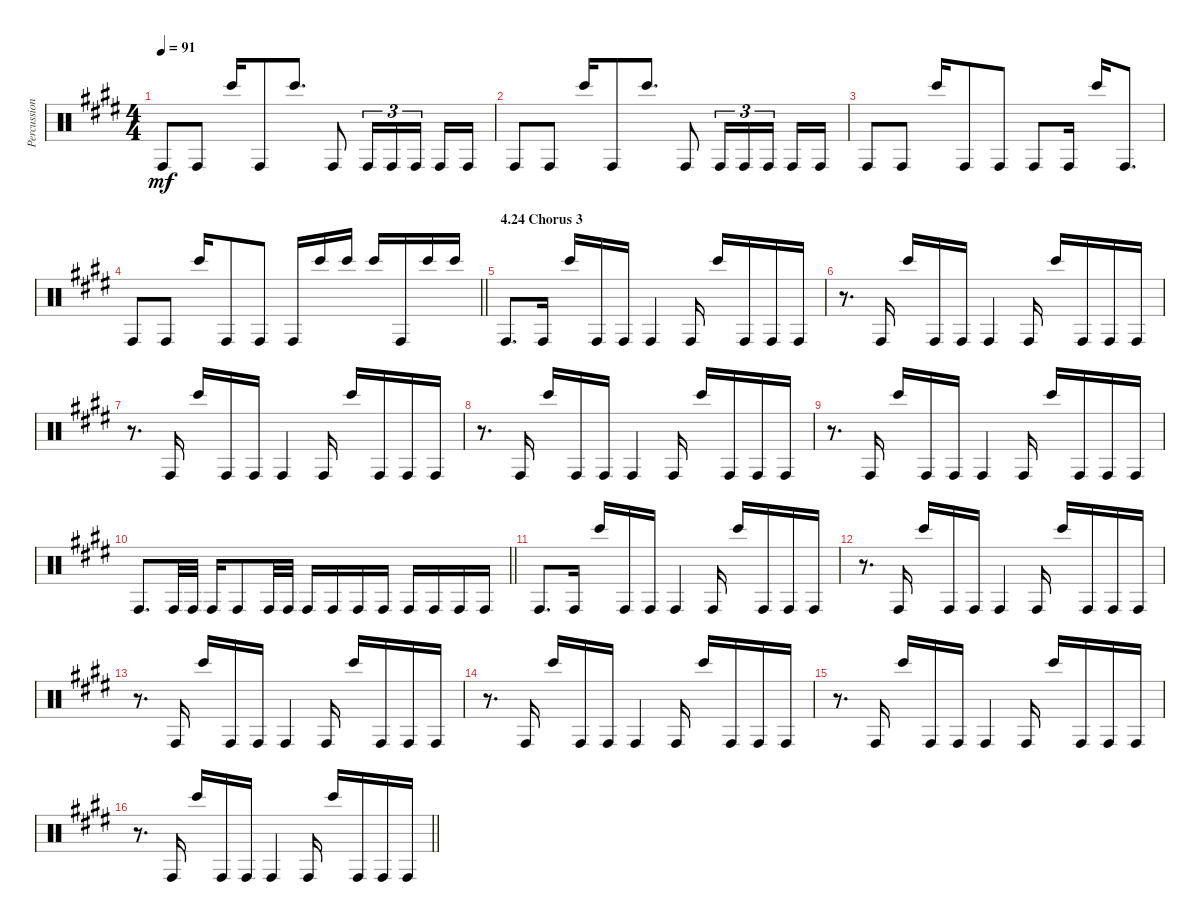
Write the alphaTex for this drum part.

\track ("Percussion" "Percussion") {instrument percussion}
\staff {score}
\articulation defaults
\ts (4 4)
\tempo 91
\clef neutral
\ks e "Conga high (hit)".8{dy mf} "Conga high (hit)".8 "Bongo High (hit)".16 "Conga high (hit)".8 "Bongo High (hit)".8{d} "Conga high (hit)".8 "Conga high (hit)".16{tu (3 2)} "Conga high (hit)".16{tu (3 2)} "Conga high (hit)".16{tu (3 2) beam splitsecondary} "Conga high (hit)".16 "Conga high (hit)".16
|
"Conga high (hit)".8 "Conga high (hit)".8 "Bongo High (hit)".16 "Conga high (hit)".8 "Bongo High (hit)".8{d} "Conga high (hit)".8 "Conga high (hit)".16{tu (3 2)} "Conga high (hit)".16{tu (3 2)} "Conga high (hit)".16{tu (3 2) beam splitsecondary} "Conga high (hit)".16 "Conga high (hit)".16 |
"Conga high (hit)".8 "Conga high (hit)".8 "Bongo High (hit)".16 "Conga high (hit)".8 "Conga high (hit)".8 "Conga high (hit)".8 "Conga high (hit)".16 "Bongo High (hit)".16 "Conga high (hit)".8{d} |
\barLineRight lightlight "Conga high (hit)".8 "Conga high (hit)".8 "Bongo High (hit)".16 "Conga high (hit)".8 "Conga high (hit)".8 "Conga high (hit)".16 "Bongo High (hit)".16 "Bongo High (hit)".16 "Bongo High (hit)".16 "Conga high (hit)".16 "Bongo High (hit)".16 "Bongo High (hit)".16
|
\section ("" "4.24 Chorus 3")
"Conga high (hit)".8{d} "Conga high (hit)".16 "Bongo High (hit)".16 "Conga high (hit)".16 "Conga high (hit)".16 "Conga high (hit)".4 "Conga high (hit)".16 "Bongo High (hit)".16 "Conga high (hit)".16 "Conga high (hit)".16 "Conga high (hit)".16 |
r.8{d} "Conga high (hit)".16 "Bongo High (hit)".16 "Conga high (hit)".16 "Conga high (hit)".16 "Conga high (hit)".4 "Conga high (hit)".16 "Bongo High (hit)".16 "Conga high (hit)".16 "Conga high (hit)".16 "Conga high (hit)".16 |
r.8{d} "Conga high (hit)".16 "Bongo High (hit)".16 "Conga high (hit)".16 "Conga high (hit)".16 "Conga high (hit)".4 "Conga high (hit)".16 "Bongo High (hit)".16 "Conga high (hit)".16 "Conga high (hit)".16 "Conga high (hit)".16 |
r.8{d} "Conga high (hit)".16 "Bongo High (hit)".16 "Conga high (hit)".16 "Conga high (hit)".16 "Conga high (hit)".4 "Conga high (hit)".16 "Bongo High (hit)".16 "Conga high (hit)".16 "Conga high (hit)".16 "Conga high (hit)".16 |
r.8{d} "Conga high (hit)".16 "Bongo High (hit)".16 "Conga high (hit)".16 "Conga high (hit)".16 "Conga high (hit)".4 "Conga high (hit)".16 "Bongo High (hit)".16 "Conga high (hit)".16 "Conga high (hit)".16 "Conga high (hit)".16 |
\barLineRight lightlight "Conga high (hit)".8{d} "Conga high (hit)".32 "Conga high (hit)".32 "Conga high (hit)".16 "Conga high (hit)".8 "Conga high (hit)".32 "Conga high (hit)".32 "Conga high (hit)".16 "Conga high (hit)".16 "Conga high (hit)".16 "Conga high (hit)".16 "Conga high (hit)".16 "Conga high (hit)".16 "Conga high (hit)".16 "Conga high (hit)".16
|
"Conga high (hit)".8{d} "Conga high (hit)".16 "Bongo High (hit)".16 "Conga high (hit)".16 "Conga high (hit)".16 "Conga high (hit)".4 "Conga high (hit)".16 "Bongo High (hit)".16 "Conga high (hit)".16 "Conga high (hit)".16 "Conga high (hit)".16 |
r.8{d} "Conga high (hit)".16 "Bongo High (hit)".16 "Conga high (hit)".16 "Conga high (hit)".16 "Conga high (hit)".4 "Conga high (hit)".16 "Bongo High (hit)".16 "Conga high (hit)".16 "Conga high (hit)".16 "Conga high (hit)".16 |
r.8{d} "Conga high (hit)".16 "Bongo High (hit)".16 "Conga high (hit)".16 "Conga high (hit)".16 "Conga high (hit)".4 "Conga high (hit)".16 "Bongo High (hit)".16 "Conga high (hit)".16 "Conga high (hit)".16 "Conga high (hit)".16 |
r.8{d} "Conga high (hit)".16 "Bongo High (hit)".16 "Conga high (hit)".16 "Conga high (hit)".16 "Conga high (hit)".4 "Conga high (hit)".16 "Bongo High (hit)".16 "Conga high (hit)".16 "Conga high (hit)".16 "Conga high (hit)".16 |
r.8{d} "Conga high (hit)".16 "Bongo High (hit)".16 "Conga high (hit)".16 "Conga high (hit)".16 "Conga high (hit)".4 "Conga high (hit)".16 "Bongo High (hit)".16 "Conga high (hit)".16 "Conga high (hit)".16 "Conga high (hit)".16 |
\barLineRight lightlight
r.8{d} "Conga high (hit)".16 "Bongo High (hit)".16 "Conga high (hit)".16 "Conga high (hit)".16 "Conga high (hit)".4 "Conga high (hit)".16 "Bongo High (hit)".16 "Conga high (hit)".16 "Conga high (hit)".16 "Conga high (hit)".16
